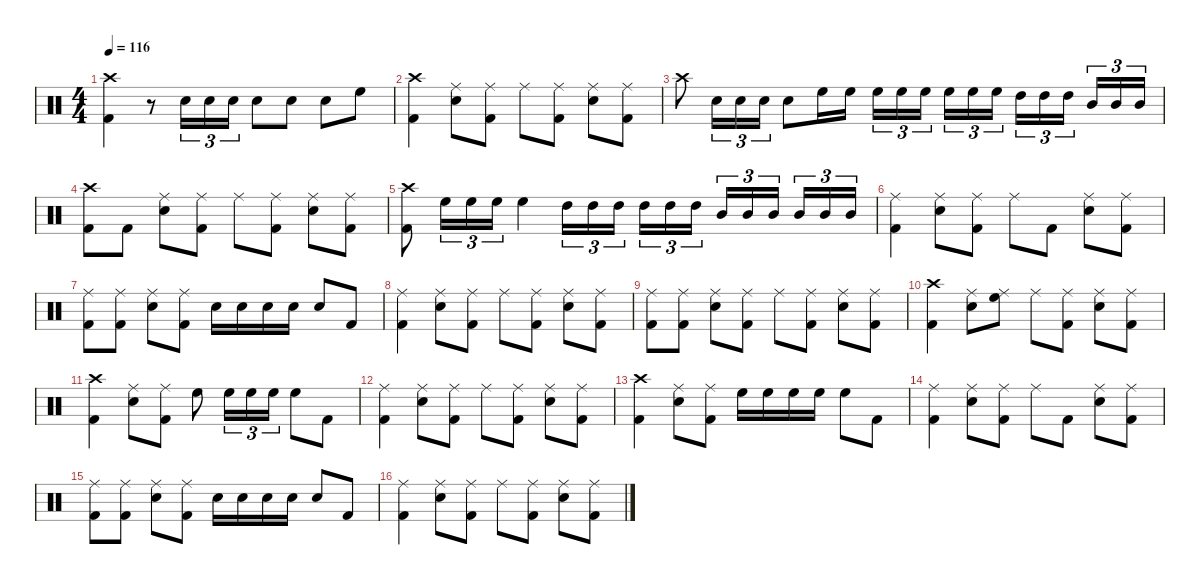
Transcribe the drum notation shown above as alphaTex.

\defaultSystemsLayout 4
\hideDynamics
\bracketExtendMode nobrackets
\singleTrackTrackNamePolicy hidden
\multiTrackTrackNamePolicy hidden
\firstSystemTrackNameMode fullname
\firstSystemTrackNameOrientation horizontal
\otherSystemsTrackNameOrientation horizontal
\track ("Drums" "drm.") {instrument percussion}
\staff {score}
\articulation defaults
\ts (4 4)
\tempo 116
\clef neutral
\ks c
("Crash high (hit)" "Kick (hit) 2").4{dy f beam Down} r.8{beam Down} "Snare (hit) 2".16{tu (3 2) beam Down} "Snare (hit) 2".16{tu (3 2) beam Down} "Snare (hit) 2".16{tu (3 2) beam Down} "Snare (hit) 2".8{beam Down} "Snare (hit) 2".8{beam Down} "Snare (hit) 2".8{beam Down} "High Floor Tom (hit)".8{beam Down} |
("Crash high (hit)" "Kick (hit) 2").4{beam Down} ("Ride (middle)" "Snare (hit) 2").8{beam Down} ("Ride (middle)" "Kick (hit) 2").8{beam Down} "Ride (middle)".8{beam Down} ("Ride (middle)" "Kick (hit) 2").8{beam Down} ("Ride (middle)" "Snare (hit) 2").8{beam Down} ("Ride (middle)" "Kick (hit) 2").8{beam Down} |
"Crash high (hit)".8{beam Down} "Snare (hit) 2".16{tu (3 2) beam Down} "Snare (hit) 2".16{tu (3 2) beam Down} "Snare (hit) 2".16{tu (3 2) beam Down} "Snare (hit) 2".8{beam Down} "High Floor Tom (hit)".16{beam Down} "High Floor Tom (hit)".16{beam Down} "High Floor Tom (hit)".16{tu (3 2) beam Down} "High Floor Tom (hit)".16{tu (3 2) beam Down} "High Floor Tom (hit)".16{tu (3 2) beam Down} "High Floor Tom (hit)".16{tu (3 2) beam Down} "High Floor Tom (hit)".16{tu (3 2) beam Down} "High Floor Tom (hit)".16{tu (3 2) beam Down} "High Tom (hit)".16{tu (3 2) beam Down} "High Tom (hit)".16{tu (3 2) beam Down} "High Tom (hit)".16{tu (3 2) beam Down} "Mid Tom (hit)".16{tu (3 2) beam Up} "Mid Tom (hit)".16{tu (3 2) beam Up} "Mid Tom (hit)".16{tu (3 2) beam Up} |
("Crash high (hit)" "Kick (hit) 2").8{beam Down} "Kick (hit) 2".8{beam Down} ("Ride (middle)" "Snare (hit) 2").8{beam Down} ("Ride (middle)" "Kick (hit) 2").8{beam Down} "Ride (middle)".8{beam Down} ("Ride (middle)" "Kick (hit) 2").8{beam Down} ("Ride (middle)" "Snare (hit) 2").8{beam Down} ("Ride (middle)" "Kick (hit) 2").8{beam Down} |
("Crash high (hit)" "Kick (hit) 2").8{beam Down} "High Floor Tom (hit)".16{tu (3 2) beam Down} "High Floor Tom (hit)".16{tu (3 2) beam Down} "High Floor Tom (hit)".16{tu (3 2) beam Down} "High Floor Tom (hit)".4{beam Down} "High Tom (hit)".16{tu (3 2) beam Down} "High Tom (hit)".16{tu (3 2) beam Down} "High Tom (hit)".16{tu (3 2) beam Down} "High Tom (hit)".16{tu (3 2) beam Down} "High Tom (hit)".16{tu (3 2) beam Down} "High Tom (hit)".16{tu (3 2) beam Down} "Mid Tom (hit)".16{tu (3 2) beam Up} "Mid Tom (hit)".16{tu (3 2) beam Up} "Mid Tom (hit)".16{tu (3 2) beam Up} "Mid Tom (hit)".16{tu (3 2) beam Up} "Mid Tom (hit)".16{tu (3 2) beam Up} "Mid Tom (hit)".16{tu (3 2) beam Up} |
("Ride (middle)" "Kick (hit) 2").4{beam Down} ("Ride (middle)" "Snare (hit) 2").8{beam Down} ("Ride (middle)" "Kick (hit) 2").8{beam Down} "Ride (middle)".8{beam Down} "Kick (hit) 2".8{beam Down} ("Ride (middle)" "Snare (hit) 2").8{beam Down} ("Ride (middle)" "Kick (hit) 2").8{beam Down} |
("Ride (middle)" "Kick (hit) 2").8{beam Down} ("Ride (middle)" "Kick (hit) 2").8{beam Down} ("Ride (middle)" "Snare (hit) 2").8{beam Down} ("Ride (middle)" "Kick (hit) 2").8{beam Down} "Snare (hit) 2".16{beam Down} "Snare (hit) 2".16{beam Down} "Snare (hit) 2".16{beam Down} "Snare (hit) 2".16{beam Down} "Snare (hit) 2".8{beam Up} "Kick (hit) 2".8{beam Up} |
("Ride (middle)" "Kick (hit) 2").4{beam Down} ("Ride (middle)" "Snare (hit) 2").8{beam Down} ("Ride (middle)" "Kick (hit) 2").8{beam Down} "Ride (middle)".8{beam Down} ("Ride (middle)" "Kick (hit) 2").8{beam Down} ("Ride (middle)" "Snare (hit) 2").8{beam Down} ("Ride (middle)" "Kick (hit) 2").8{beam Down} |
("Ride (middle)" "Kick (hit) 2").8{beam Down} ("Ride (middle)" "Kick (hit) 2").8{beam Down} ("Ride (middle)" "Snare (hit) 2").8{beam Down} ("Ride (middle)" "Kick (hit) 2").8{beam Down} "Ride (middle)".8{beam Down} ("Ride (middle)" "Kick (hit) 2").8{beam Down} ("Ride (middle)" "Snare (hit) 2").8{beam Down} ("Ride (middle)" "Kick (hit) 2").8{beam Down} |
("Crash high (hit)" "Kick (hit) 2").4{beam Down} ("Ride (middle)" "Snare (hit) 2").8{beam Down} ("Ride (middle)" "High Floor Tom (hit)").8{beam Down} "Ride (middle)".8{beam Down} ("Ride (middle)" "Kick (hit) 2").8{beam Down} ("Ride (middle)" "Snare (hit) 2").8{beam Down} ("Ride (middle)" "Kick (hit) 2").8{beam Down} |
("Crash high (hit)" "Kick (hit) 2").4{beam Down} ("Ride (middle)" "Snare (hit) 2").8{beam Down} ("Ride (middle)" "Kick (hit) 2").8{beam Down} "High Floor Tom (hit)".8{beam Down} "High Floor Tom (hit)".16{tu (3 2) beam Down} "High Floor Tom (hit)".16{tu (3 2) beam Down} "High Floor Tom (hit)".16{tu (3 2) beam Down} "High Floor Tom (hit)".8{beam Down} "Kick (hit) 2".8{beam Down} |
("Ride (middle)" "Kick (hit) 2").4{beam Down} ("Ride (middle)" "Snare (hit) 2").8{beam Down} ("Ride (middle)" "Kick (hit) 2").8{beam Down} "Ride (middle)".8{beam Down} ("Ride (middle)" "Kick (hit) 2").8{beam Down} ("Ride (middle)" "Snare (hit) 2").8{beam Down} ("Ride (middle)" "Kick (hit) 2").8{beam Down} |
("Crash high (hit)" "Kick (hit) 2").4{beam Down} ("Ride (middle)" "Snare (hit) 2").8{beam Down} ("Ride (middle)" "Kick (hit) 2").8{beam Down} "High Floor Tom (hit)".16{beam Down} "High Floor Tom (hit)".16{beam Down} "High Floor Tom (hit)".16{beam Down} "High Floor Tom (hit)".16{beam Down} "High Floor Tom (hit)".8{beam Down} "Kick (hit) 2".8{beam Down} |
("Ride (middle)" "Kick (hit) 2").4{beam Down} ("Ride (middle)" "Snare (hit) 2").8{beam Down} ("Ride (middle)" "Kick (hit) 2").8{beam Down} "Ride (middle)".8{beam Down} "Kick (hit) 2".8{beam Down} ("Ride (middle)" "Snare (hit) 2").8{beam Down} ("Ride (middle)" "Kick (hit) 2").8{beam Down} |
("Ride (middle)" "Kick (hit) 2").8{beam Down} ("Ride (middle)" "Kick (hit) 2").8{beam Down} ("Ride (middle)" "Snare (hit) 2").8{beam Down} ("Ride (middle)" "Kick (hit) 2").8{beam Down} "Snare (hit) 2".16{beam Down} "Snare (hit) 2".16{beam Down} "Snare (hit) 2".16{beam Down} "Snare (hit) 2".16{beam Down} "Snare (hit) 2".8{beam Up} "Kick (hit) 2".8{beam Up} |
("Ride (middle)" "Kick (hit) 2").4{beam Down} ("Ride (middle)" "Snare (hit) 2").8{beam Down} ("Ride (middle)" "Kick (hit) 2").8{beam Down} "Ride (middle)".8{beam Down} ("Ride (middle)" "Kick (hit) 2").8{beam Down} ("Ride (middle)" "Snare (hit) 2").8{beam Down} ("Ride (middle)" "Kick (hit) 2").8{beam Down}
